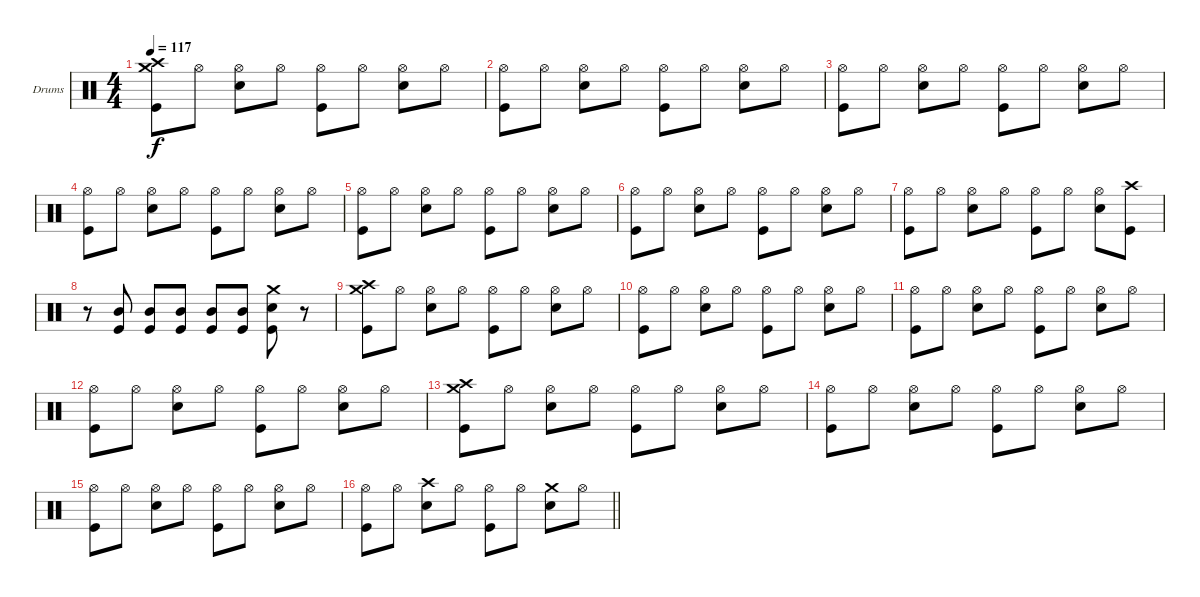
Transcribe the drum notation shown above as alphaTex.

\bracketExtendMode groupsimilarinstruments
\firstSystemTrackNameOrientation horizontal
\otherSystemsTrackNameOrientation horizontal
\track ("Drumkit" "Drums") {instrument percussion}
\staff {score}
\articulation defaults
\ts (4 4)
\tempo 117
\clef neutral
\ks c
("Crash medium (hit)" "Crash high (hit)" "Kick (hit)").8{dy f} "Hi-Hat (open)".8 ("Hi-Hat (open)" "Snare (hit) 2").8 "Hi-Hat (open)".8 ("Hi-Hat (open)" "Kick (hit)").8 "Hi-Hat (open)".8 ("Hi-Hat (open)" "Snare (hit) 2").8 "Hi-Hat (open)".8 |
("Hi-Hat (open)" "Kick (hit)").8 "Hi-Hat (open)".8 ("Hi-Hat (open)" "Snare (hit) 2").8 "Hi-Hat (open)".8 ("Hi-Hat (open)" "Kick (hit)").8 "Hi-Hat (open)".8 ("Hi-Hat (open)" "Snare (hit) 2").8 "Hi-Hat (open)".8 |
("Hi-Hat (open)" "Kick (hit)").8 "Hi-Hat (open)".8 ("Hi-Hat (open)" "Snare (hit) 2").8 "Hi-Hat (open)".8 ("Hi-Hat (open)" "Kick (hit)").8 "Hi-Hat (open)".8 ("Hi-Hat (open)" "Snare (hit) 2").8 "Hi-Hat (open)".8 |
("Hi-Hat (open)" "Kick (hit)").8 "Hi-Hat (open)".8 ("Hi-Hat (open)" "Snare (hit) 2").8 "Hi-Hat (open)".8 ("Hi-Hat (open)" "Kick (hit)").8 "Hi-Hat (open)".8 ("Hi-Hat (open)" "Snare (hit) 2").8 "Hi-Hat (open)".8 |
("Hi-Hat (open)" "Kick (hit)").8 "Hi-Hat (open)".8 ("Hi-Hat (open)" "Snare (hit) 2").8 "Hi-Hat (open)".8 ("Hi-Hat (open)" "Kick (hit)").8 "Hi-Hat (open)".8 ("Hi-Hat (open)" "Snare (hit) 2").8 "Hi-Hat (open)".8 |
("Hi-Hat (open)" "Kick (hit)").8 "Hi-Hat (open)".8 ("Hi-Hat (open)" "Snare (hit) 2").8 "Hi-Hat (open)".8 ("Hi-Hat (open)" "Kick (hit)").8 "Hi-Hat (open)".8 ("Hi-Hat (open)" "Snare (hit) 2").8 "Hi-Hat (open)".8 |
("Hi-Hat (open)" "Kick (hit)").8 "Hi-Hat (open)".8 ("Hi-Hat (open)" "Snare (hit) 2").8 "Hi-Hat (open)".8 ("Hi-Hat (open)" "Kick (hit)").8 "Hi-Hat (open)".8 ("Hi-Hat (open)" "Snare (hit) 2").8 ("Crash high (hit)" "Kick (hit)").8 |
r.8 ("Kick (hit)" "Mid Tom (hit)").8 ("Kick (hit)" "Mid Tom (hit)").8 ("Kick (hit)" "Mid Tom (hit)").8 ("Kick (hit)" "Mid Tom (hit)").8 ("Kick (hit)" "Mid Tom (hit)").8 ("Crash medium (hit)" "Kick (hit)" "Snare (hit) 2").8 r.8 |
("Crash medium (hit)" "Crash high (hit)" "Kick (hit)").8 "Hi-Hat (open)".8 ("Hi-Hat (open)" "Snare (hit) 2").8 "Hi-Hat (open)".8 ("Hi-Hat (open)" "Kick (hit)").8 "Hi-Hat (open)".8 ("Hi-Hat (open)" "Snare (hit) 2").8 "Hi-Hat (open)".8 |
("Hi-Hat (open)" "Kick (hit)").8 "Hi-Hat (open)".8 ("Hi-Hat (open)" "Snare (hit) 2").8 "Hi-Hat (open)".8 ("Hi-Hat (open)" "Kick (hit)").8 "Hi-Hat (open)".8 ("Hi-Hat (open)" "Snare (hit) 2").8 "Hi-Hat (open)".8 |
("Hi-Hat (open)" "Kick (hit)").8 "Hi-Hat (open)".8 ("Hi-Hat (open)" "Snare (hit) 2").8 "Hi-Hat (open)".8 ("Hi-Hat (open)" "Kick (hit)").8 "Hi-Hat (open)".8 ("Hi-Hat (open)" "Snare (hit) 2").8 "Hi-Hat (open)".8 |
("Hi-Hat (open)" "Kick (hit)").8 "Hi-Hat (open)".8 ("Hi-Hat (open)" "Snare (hit) 2").8 "Hi-Hat (open)".8 ("Hi-Hat (open)" "Kick (hit)").8 "Hi-Hat (open)".8 ("Hi-Hat (open)" "Snare (hit) 2").8 "Hi-Hat (open)".8 |
("Crash medium (hit)" "Crash high (hit)" "Kick (hit)").8 "Hi-Hat (open)".8 ("Hi-Hat (open)" "Snare (hit) 2").8 "Hi-Hat (open)".8 ("Hi-Hat (open)" "Kick (hit)").8 "Hi-Hat (open)".8 ("Hi-Hat (open)" "Snare (hit) 2").8 "Hi-Hat (open)".8 |
("Hi-Hat (open)" "Kick (hit)").8 "Hi-Hat (open)".8 ("Hi-Hat (open)" "Snare (hit) 2").8 "Hi-Hat (open)".8 ("Hi-Hat (open)" "Kick (hit)").8 "Hi-Hat (open)".8 ("Hi-Hat (open)" "Snare (hit) 2").8 "Hi-Hat (open)".8 |
("Hi-Hat (open)" "Kick (hit)").8 "Hi-Hat (open)".8 ("Hi-Hat (open)" "Snare (hit) 2").8 "Hi-Hat (open)".8 ("Hi-Hat (open)" "Kick (hit)").8 "Hi-Hat (open)".8 ("Hi-Hat (open)" "Snare (hit) 2").8 "Hi-Hat (open)".8 |
\barLineRight lightlight
("Hi-Hat (open)" "Kick (hit)").8 "Hi-Hat (open)".8 ("Crash high (hit)" "Snare (hit) 2").8 "Hi-Hat (open)".8 ("Hi-Hat (open)" "Kick (hit)").8 "Hi-Hat (open)".8 ("Crash medium (hit)" "Snare (hit) 2").8 "Hi-Hat (open)".8
